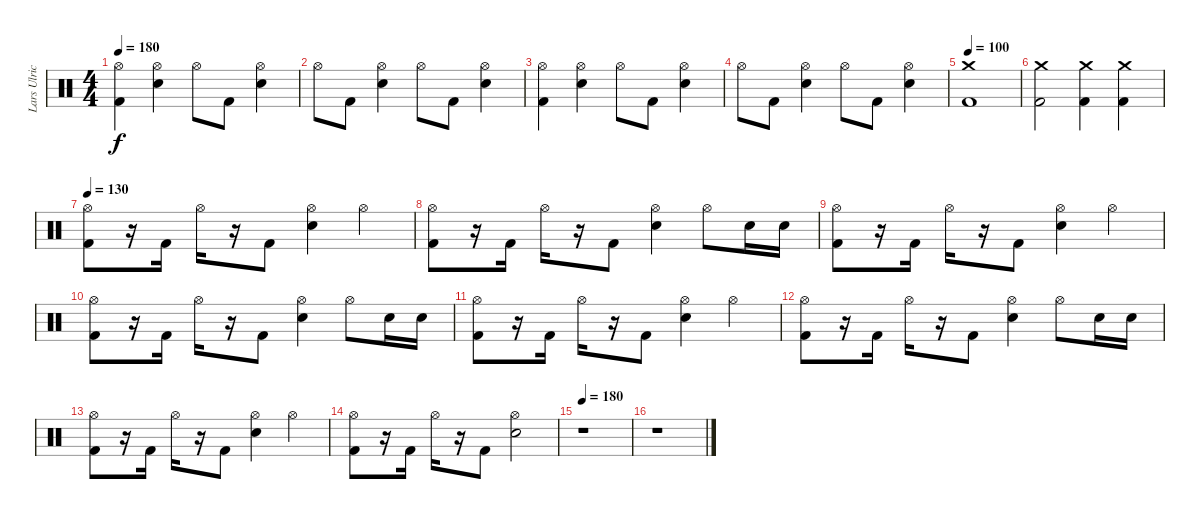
\track ("Lars Ulrich" "Lars Ulric") {instrument percussion}
\staff {score}
\articulation defaults
\ts (4 4)
\tempo 180
\clef neutral
\ks c
("Hi-Hat (open)" "Kick (hit) 2").4{dy f} ("Hi-Hat (open)" "Electric Snare (hit)").4 "Hi-Hat (open)".8 "Kick (hit) 2".8 ("Hi-Hat (open)" "Electric Snare (hit)").4 |
"Hi-Hat (open)".8 "Kick (hit) 2".8 ("Hi-Hat (open)" "Electric Snare (hit)").4 "Hi-Hat (open)".8 "Kick (hit) 2".8 ("Hi-Hat (open)" "Electric Snare (hit)").4 |
("Hi-Hat (open)" "Kick (hit) 2").4 ("Hi-Hat (open)" "Electric Snare (hit)").4 "Hi-Hat (open)".8 "Kick (hit) 2".8 ("Hi-Hat (open)" "Electric Snare (hit)").4 |
"Hi-Hat (open)".8 "Kick (hit) 2".8 ("Hi-Hat (open)" "Electric Snare (hit)").4 "Hi-Hat (open)".8 "Kick (hit) 2".8 ("Hi-Hat (open)" "Electric Snare (hit)").4 |
\tempo 100
("Crash medium (hit)" "Kick (hit) 2").1 |
("Crash medium (hit)" "Kick (hit) 2").2 ("Crash medium (hit)" "Kick (hit) 2").4 ("Crash medium (hit)" "Kick (hit) 2").4 |
\tempo 130
("Hi-Hat (open)" "Kick (hit) 2").8 r.16 "Kick (hit) 2".16 "Hi-Hat (open)".16 r.16 "Kick (hit) 2".8 ("Hi-Hat (open)" "Electric Snare (hit)").4 "Hi-Hat (open)".4 |
("Hi-Hat (open)" "Kick (hit) 2").8 r.16 "Kick (hit) 2".16 "Hi-Hat (open)".16 r.16 "Kick (hit) 2".8 ("Hi-Hat (open)" "Electric Snare (hit)").4 "Hi-Hat (open)".8 "Electric Snare (hit)".16 "Electric Snare (hit)".16 |
("Hi-Hat (open)" "Kick (hit) 2").8 r.16 "Kick (hit) 2".16 "Hi-Hat (open)".16 r.16 "Kick (hit) 2".8 ("Hi-Hat (open)" "Electric Snare (hit)").4 "Hi-Hat (open)".4 |
("Hi-Hat (open)" "Kick (hit) 2").8 r.16 "Kick (hit) 2".16 "Hi-Hat (open)".16 r.16 "Kick (hit) 2".8 ("Hi-Hat (open)" "Electric Snare (hit)").4 "Hi-Hat (open)".8 "Electric Snare (hit)".16 "Electric Snare (hit)".16 |
("Hi-Hat (open)" "Kick (hit) 2").8 r.16 "Kick (hit) 2".16 "Hi-Hat (open)".16 r.16 "Kick (hit) 2".8 ("Hi-Hat (open)" "Electric Snare (hit)").4 "Hi-Hat (open)".4 |
("Hi-Hat (open)" "Kick (hit) 2").8 r.16 "Kick (hit) 2".16 "Hi-Hat (open)".16 r.16 "Kick (hit) 2".8 ("Hi-Hat (open)" "Electric Snare (hit)").4 "Hi-Hat (open)".8 "Electric Snare (hit)".16 "Electric Snare (hit)".16 |
("Hi-Hat (open)" "Kick (hit) 2").8 r.16 "Kick (hit) 2".16 "Hi-Hat (open)".16 r.16 "Kick (hit) 2".8 ("Hi-Hat (open)" "Electric Snare (hit)").4 "Hi-Hat (open)".4 |
("Hi-Hat (open)" "Kick (hit) 2").8 r.16 "Kick (hit) 2".16 "Hi-Hat (open)".16 r.16 "Kick (hit) 2".8 ("Hi-Hat (open)" "Electric Snare (hit)").2 |
\tempo 180
r.1 |
r.1
